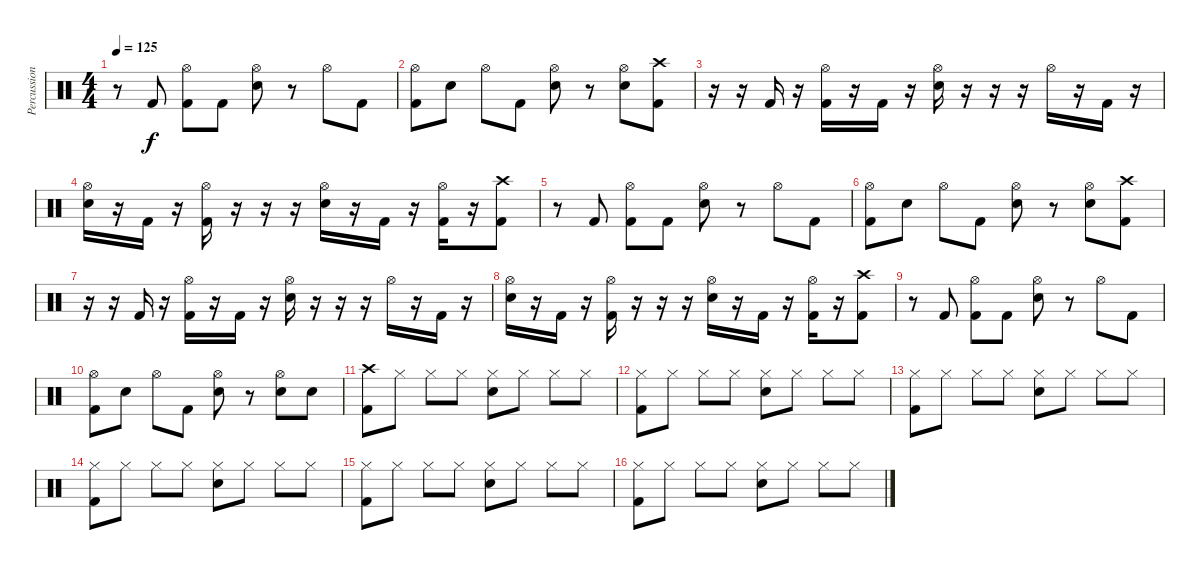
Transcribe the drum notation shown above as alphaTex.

\track ("Percussion" "Percussion") {instrument percussion}
\staff {score}
\articulation defaults
\ts (4 4)
\tempo 125
\clef neutral
\ks c
r.8{dy f} "Kick (hit) 2".8 ("Hi-Hat (open)" "Kick (hit) 2").8 "Kick (hit) 2".8 ("Hi-Hat (open)" "Electric Snare (hit)").8 r.8 "Hi-Hat (open)".8 "Kick (hit) 2".8 |
("Hi-Hat (open)" "Kick (hit) 2").8 "Electric Snare (hit)".8 "Hi-Hat (open)".8 "Kick (hit) 2".8 ("Hi-Hat (open)" "Electric Snare (hit)").8 r.8 ("Hi-Hat (open)" "Electric Snare (hit)").8 ("Crash high (hit)" "Kick (hit) 2").8 |
r.16 r.16 "Kick (hit) 2".16 r.16 ("Hi-Hat (open)" "Kick (hit) 2").16 r.16 "Kick (hit) 2".16 r.16 ("Hi-Hat (open)" "Electric Snare (hit)").16 r.16 r.16 r.16 "Hi-Hat (open)".16 r.16 "Kick (hit) 2".16 r.16 |
("Hi-Hat (open)" "Electric Snare (hit)").16 r.16 "Kick (hit) 2".16 r.16 ("Hi-Hat (open)" "Kick (hit) 2").16 r.16 r.16 r.16 ("Hi-Hat (open)" "Electric Snare (hit)").16 r.16 "Kick (hit) 2".16 r.16 ("Hi-Hat (open)" "Kick (hit) 2").16 r.16 ("Crash high (hit)" "Kick (hit) 2").8 |
r.8 "Kick (hit) 2".8 ("Hi-Hat (open)" "Kick (hit) 2").8 "Kick (hit) 2".8 ("Hi-Hat (open)" "Electric Snare (hit)").8 r.8 "Hi-Hat (open)".8 "Kick (hit) 2".8 |
("Hi-Hat (open)" "Kick (hit) 2").8 "Electric Snare (hit)".8 "Hi-Hat (open)".8 "Kick (hit) 2".8 ("Hi-Hat (open)" "Electric Snare (hit)").8 r.8 ("Hi-Hat (open)" "Electric Snare (hit)").8 ("Crash high (hit)" "Kick (hit) 2").8 |
r.16 r.16 "Kick (hit) 2".16 r.16 ("Hi-Hat (open)" "Kick (hit) 2").16 r.16 "Kick (hit) 2".16 r.16 ("Hi-Hat (open)" "Electric Snare (hit)").16 r.16 r.16 r.16 "Hi-Hat (open)".16 r.16 "Kick (hit) 2".16 r.16 |
("Hi-Hat (open)" "Electric Snare (hit)").16 r.16 "Kick (hit) 2".16 r.16 ("Hi-Hat (open)" "Kick (hit) 2").16 r.16 r.16 r.16 ("Hi-Hat (open)" "Electric Snare (hit)").16 r.16 "Kick (hit) 2".16 r.16 ("Hi-Hat (open)" "Kick (hit) 2").16 r.16 ("Crash high (hit)" "Kick (hit) 2").8 |
r.8 "Kick (hit) 2".8 ("Hi-Hat (open)" "Kick (hit) 2").8 "Kick (hit) 2".8 ("Hi-Hat (open)" "Electric Snare (hit)").8 r.8 "Hi-Hat (open)".8 "Kick (hit) 2".8 |
("Hi-Hat (open)" "Kick (hit) 2").8 "Electric Snare (hit)".8 "Hi-Hat (open)".8 "Kick (hit) 2".8 ("Hi-Hat (open)" "Electric Snare (hit)").8 r.8 ("Hi-Hat (open)" "Electric Snare (hit)").8 "Electric Snare (hit)".8 |
("Crash high (hit)" "Kick (hit) 2").8 "Hi-Hat (closed)".8 "Hi-Hat (closed)".8 "Hi-Hat (closed)".8 ("Hi-Hat (closed)" "Electric Snare (hit)").8 "Hi-Hat (closed)".8 "Hi-Hat (closed)".8 "Hi-Hat (closed)".8 |
("Hi-Hat (closed)" "Kick (hit) 2").8 "Hi-Hat (closed)".8 "Hi-Hat (closed)".8 "Hi-Hat (closed)".8 ("Hi-Hat (closed)" "Electric Snare (hit)").8 "Hi-Hat (closed)".8 "Hi-Hat (closed)".8 "Hi-Hat (closed)".8 |
("Hi-Hat (closed)" "Kick (hit) 2").8 "Hi-Hat (closed)".8 "Hi-Hat (closed)".8 "Hi-Hat (closed)".8 ("Hi-Hat (closed)" "Electric Snare (hit)").8 "Hi-Hat (closed)".8 "Hi-Hat (closed)".8 "Hi-Hat (closed)".8 |
("Hi-Hat (closed)" "Kick (hit) 2").8 "Hi-Hat (closed)".8 "Hi-Hat (closed)".8 "Hi-Hat (closed)".8 ("Hi-Hat (closed)" "Electric Snare (hit)").8 "Hi-Hat (closed)".8 "Hi-Hat (closed)".8 "Hi-Hat (closed)".8 |
("Hi-Hat (closed)" "Kick (hit) 2").8 "Hi-Hat (closed)".8 "Hi-Hat (closed)".8 "Hi-Hat (closed)".8 ("Hi-Hat (closed)" "Electric Snare (hit)").8 "Hi-Hat (closed)".8 "Hi-Hat (closed)".8 "Hi-Hat (closed)".8 |
("Hi-Hat (closed)" "Kick (hit) 2").8 "Hi-Hat (closed)".8 "Hi-Hat (closed)".8 "Hi-Hat (closed)".8 ("Hi-Hat (closed)" "Electric Snare (hit)").8 "Hi-Hat (closed)".8 "Hi-Hat (closed)".8 "Hi-Hat (closed)".8
